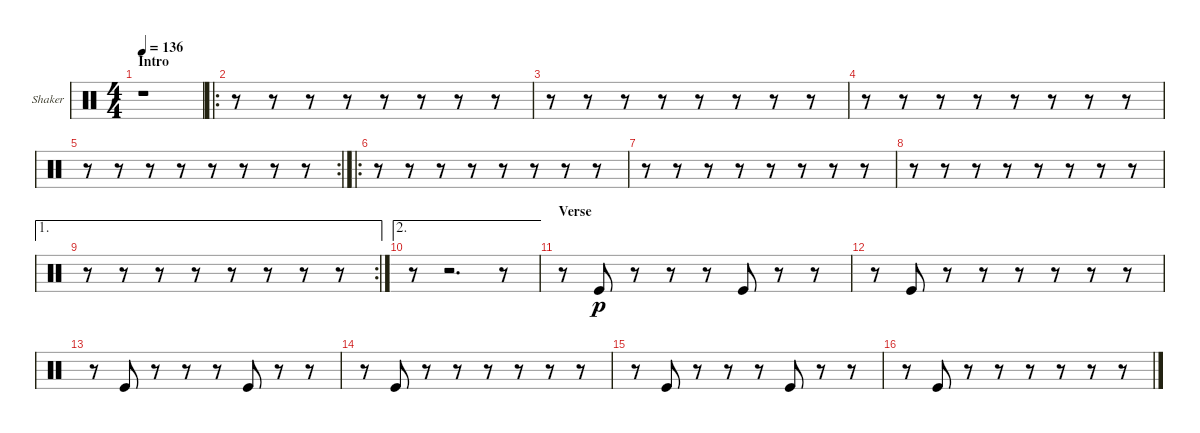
\bracketExtendMode groupsimilarinstruments
\firstSystemTrackNameOrientation horizontal
\otherSystemsTrackNameOrientation horizontal
\track ("Shaker" "Shaker") {instrument percussion}
\staff {score}
\articulation defaults
\ts (4 4)
\section ("" "Intro")
\tempo 136
\clef neutral
\ks c
r.1{dy p} |
\ro
r.8 r.8 r.8 r.8 r.8 r.8 r.8 r.8 |
r.8 r.8 r.8 r.8 r.8 r.8 r.8 r.8 |
r.8 r.8 r.8 r.8 r.8 r.8 r.8 r.8 |
\rc 2
r.8 r.8 r.8 r.8 r.8 r.8 r.8 r.8 |
\ro
r.8 r.8 r.8 r.8 r.8 r.8 r.8 r.8 |
r.8 r.8 r.8 r.8 r.8 r.8 r.8 r.8 |
r.8 r.8 r.8 r.8 r.8 r.8 r.8 r.8 |
\ae 1
\rc 2
r.8 r.8 r.8 r.8 r.8 r.8 r.8 r.8 |
\ae 2
r.8 r.2{d} r.8 |
\section ("" "Verse")
r.8 "Kick (hit)".8 r.8 r.8 r.8 "Kick (hit)".8 r.8 r.8 |
r.8 "Kick (hit)".8 r.8 r.8 r.8 r.8 r.8 r.8 |
r.8 "Kick (hit)".8 r.8 r.8 r.8 "Kick (hit)".8 r.8 r.8 |
r.8 "Kick (hit)".8 r.8 r.8 r.8 r.8 r.8 r.8 |
r.8 "Kick (hit)".8 r.8 r.8 r.8 "Kick (hit)".8 r.8 r.8 |
r.8 "Kick (hit)".8 r.8 r.8 r.8 r.8 r.8 r.8
